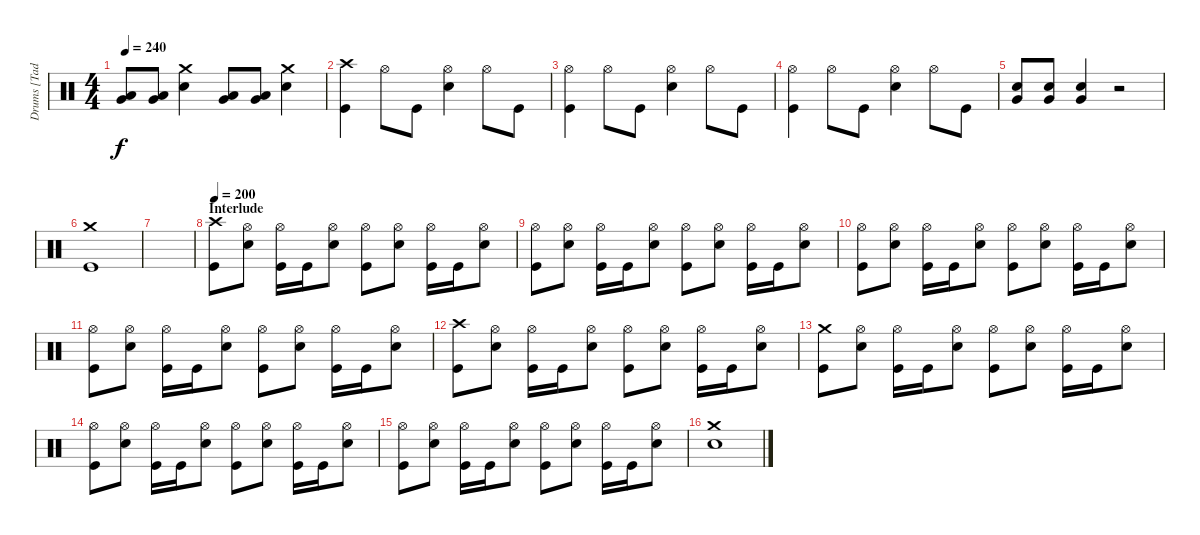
\track ("Drums [Tad Leger]" "Drums [Tad") {instrument percussion}
\staff {score}
\articulation defaults
\ts (4 4)
\tempo 240
\clef neutral
\ks c
("Very Low Tom (hit)" "Low Tom (hit)").8{dy f} ("Very Low Tom (hit)" "Low Tom (hit)").8 ("Crash medium (hit)" "Electric Snare (hit)").4 ("Very Low Tom (hit)" "Low Tom (hit)").8 ("Very Low Tom (hit)" "Low Tom (hit)").8 ("Crash medium (hit)" "Electric Snare (hit)").4 |
("Crash high (hit)" "Kick (hit)").4 "Hi-Hat (open)".8 "Kick (hit)".8 ("Hi-Hat (open)" "Electric Snare (hit)").4 "Hi-Hat (open)".8 "Kick (hit)".8 |
("Hi-Hat (open)" "Kick (hit)").4 "Hi-Hat (open)".8 "Kick (hit)".8 ("Hi-Hat (open)" "Electric Snare (hit)").4 "Hi-Hat (open)".8 "Kick (hit)".8 |
("Hi-Hat (open)" "Kick (hit)").4 "Hi-Hat (open)".8 "Kick (hit)".8 ("Hi-Hat (open)" "Electric Snare (hit)").4 "Hi-Hat (open)".8 "Kick (hit)".8 |
("Very Low Tom (hit)" "Electric Snare (hit)").8 ("Very Low Tom (hit)" "Electric Snare (hit)").8 ("Very Low Tom (hit)" "Electric Snare (hit)").4 r.2 |
("Crash medium (hit)" "Kick (hit)").1 |
|
\section ("" "Interlude")
\tempo 200
("Crash high (hit)" "Kick (hit)").8 ("Hi-Hat (open)" "Electric Snare (hit)").8 ("Hi-Hat (open)" "Kick (hit)").16 "Kick (hit)".16 ("Hi-Hat (open)" "Electric Snare (hit)").8 ("Hi-Hat (open)" "Kick (hit)").8 ("Hi-Hat (open)" "Electric Snare (hit)").8 ("Hi-Hat (open)" "Kick (hit)").16 "Kick (hit)".16 ("Hi-Hat (open)" "Electric Snare (hit)").8 |
("Hi-Hat (open)" "Kick (hit)").8 ("Hi-Hat (open)" "Electric Snare (hit)").8 ("Hi-Hat (open)" "Kick (hit)").16 "Kick (hit)".16 ("Hi-Hat (open)" "Electric Snare (hit)").8 ("Hi-Hat (open)" "Kick (hit)").8 ("Hi-Hat (open)" "Electric Snare (hit)").8 ("Hi-Hat (open)" "Kick (hit)").16 "Kick (hit)".16 ("Hi-Hat (open)" "Electric Snare (hit)").8 |
("Hi-Hat (open)" "Kick (hit)").8 ("Hi-Hat (open)" "Electric Snare (hit)").8 ("Hi-Hat (open)" "Kick (hit)").16 "Kick (hit)".16 ("Hi-Hat (open)" "Electric Snare (hit)").8 ("Hi-Hat (open)" "Kick (hit)").8 ("Hi-Hat (open)" "Electric Snare (hit)").8 ("Hi-Hat (open)" "Kick (hit)").16 "Kick (hit)".16 ("Hi-Hat (open)" "Electric Snare (hit)").8 |
("Hi-Hat (open)" "Kick (hit)").8 ("Hi-Hat (open)" "Electric Snare (hit)").8 ("Hi-Hat (open)" "Kick (hit)").16 "Kick (hit)".16 ("Hi-Hat (open)" "Electric Snare (hit)").8 ("Hi-Hat (open)" "Kick (hit)").8 ("Hi-Hat (open)" "Electric Snare (hit)").8 ("Hi-Hat (open)" "Kick (hit)").16 "Kick (hit)".16 ("Hi-Hat (open)" "Electric Snare (hit)").8 |
("Crash high (hit)" "Kick (hit)").8 ("Hi-Hat (open)" "Electric Snare (hit)").8 ("Hi-Hat (open)" "Kick (hit)").16 "Kick (hit)".16 ("Hi-Hat (open)" "Electric Snare (hit)").8 ("Hi-Hat (open)" "Kick (hit)").8 ("Hi-Hat (open)" "Electric Snare (hit)").8 ("Hi-Hat (open)" "Kick (hit)").16 "Kick (hit)".16 ("Hi-Hat (open)" "Electric Snare (hit)").8 |
("Crash medium (hit)" "Kick (hit)").8 ("Hi-Hat (open)" "Electric Snare (hit)").8 ("Hi-Hat (open)" "Kick (hit)").16 "Kick (hit)".16 ("Hi-Hat (open)" "Electric Snare (hit)").8 ("Hi-Hat (open)" "Kick (hit)").8 ("Hi-Hat (open)" "Electric Snare (hit)").8 ("Hi-Hat (open)" "Kick (hit)").16 "Kick (hit)".16 ("Hi-Hat (open)" "Electric Snare (hit)").8 |
("Hi-Hat (open)" "Kick (hit)").8 ("Hi-Hat (open)" "Electric Snare (hit)").8 ("Hi-Hat (open)" "Kick (hit)").16 "Kick (hit)".16 ("Hi-Hat (open)" "Electric Snare (hit)").8 ("Hi-Hat (open)" "Kick (hit)").8 ("Hi-Hat (open)" "Electric Snare (hit)").8 ("Hi-Hat (open)" "Kick (hit)").16 "Kick (hit)".16 ("Hi-Hat (open)" "Electric Snare (hit)").8 |
("Hi-Hat (open)" "Kick (hit)").8 ("Hi-Hat (open)" "Electric Snare (hit)").8 ("Hi-Hat (open)" "Kick (hit)").16 "Kick (hit)".16 ("Hi-Hat (open)" "Electric Snare (hit)").8 ("Hi-Hat (open)" "Kick (hit)").8 ("Hi-Hat (open)" "Electric Snare (hit)").8 ("Hi-Hat (open)" "Kick (hit)").16 "Kick (hit)".16 ("Hi-Hat (open)" "Electric Snare (hit)").8 |
("Crash medium (hit)" "Electric Snare (hit)").1
